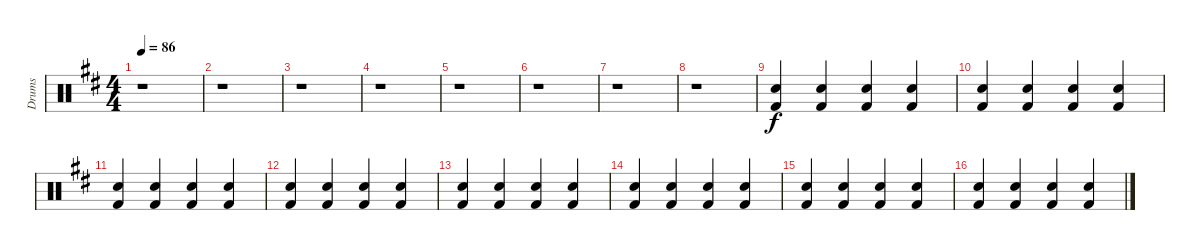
\track ("Drums" "Drums") {instrument percussion}
\staff {score}
\articulation defaults
\ts (4 4)
\tempo 86
\clef neutral
\ks d
r.1{dy f} |
r.1 |
r.1 |
r.1 |
r.1 |
r.1 |
r.1 |
r.1 |
("Kick (hit) 2" "Hand Clap (hit)").4 ("Kick (hit) 2" "Hand Clap (hit)").4 ("Kick (hit) 2" "Hand Clap (hit)").4 ("Kick (hit) 2" "Hand Clap (hit)").4 |
("Kick (hit) 2" "Hand Clap (hit)").4 ("Kick (hit) 2" "Hand Clap (hit)").4 ("Kick (hit) 2" "Hand Clap (hit)").4 ("Kick (hit) 2" "Hand Clap (hit)").4 |
("Kick (hit) 2" "Hand Clap (hit)").4 ("Kick (hit) 2" "Hand Clap (hit)").4 ("Kick (hit) 2" "Hand Clap (hit)").4 ("Kick (hit) 2" "Hand Clap (hit)").4 |
("Kick (hit) 2" "Hand Clap (hit)").4 ("Kick (hit) 2" "Hand Clap (hit)").4 ("Kick (hit) 2" "Hand Clap (hit)").4 ("Kick (hit) 2" "Hand Clap (hit)").4 |
("Kick (hit) 2" "Hand Clap (hit)").4 ("Kick (hit) 2" "Hand Clap (hit)").4 ("Kick (hit) 2" "Hand Clap (hit)").4 ("Kick (hit) 2" "Hand Clap (hit)").4 |
("Kick (hit) 2" "Hand Clap (hit)").4 ("Kick (hit) 2" "Hand Clap (hit)").4 ("Kick (hit) 2" "Hand Clap (hit)").4 ("Kick (hit) 2" "Hand Clap (hit)").4 |
("Kick (hit) 2" "Hand Clap (hit)").4 ("Kick (hit) 2" "Hand Clap (hit)").4 ("Kick (hit) 2" "Hand Clap (hit)").4 ("Kick (hit) 2" "Hand Clap (hit)").4 |
("Kick (hit) 2" "Hand Clap (hit)").4 ("Kick (hit) 2" "Hand Clap (hit)").4 ("Kick (hit) 2" "Hand Clap (hit)").4 ("Kick (hit) 2" "Hand Clap (hit)").4
